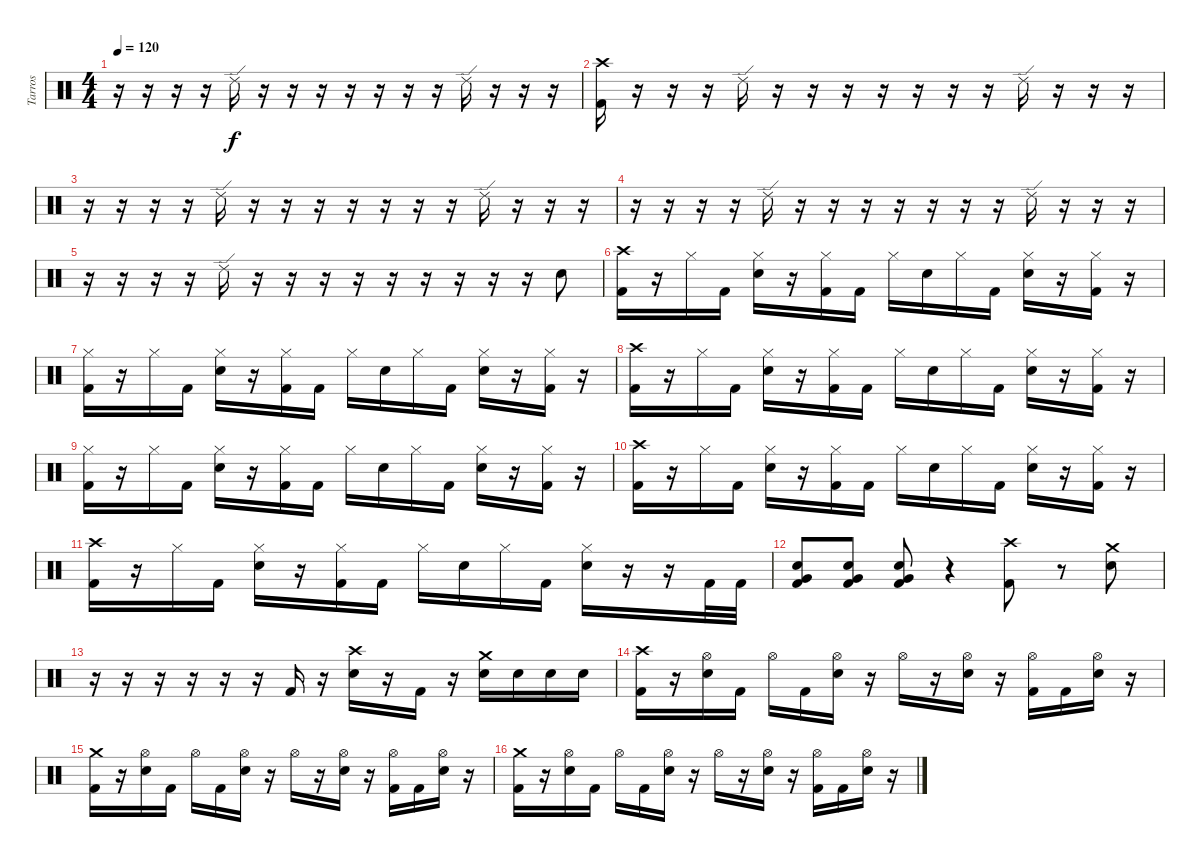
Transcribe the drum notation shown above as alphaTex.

\track ("Tarros" "Tarros") {instrument percussion}
\staff {score}
\articulation defaults
\ts (4 4)
\tempo 120
\clef neutral
\ks c
r.16{dy f} r.16 r.16 r.16 "Ride (edge) 2".16 r.16 r.16 r.16 r.16 r.16 r.16 r.16 "Ride (edge) 2".16 r.16 r.16 r.16 |
("Crash high (hit)" "Kick (hit) 2").16 r.16 r.16 r.16 "Ride (edge) 2".16 r.16 r.16 r.16 r.16 r.16 r.16 r.16 "Ride (edge) 2".16 r.16 r.16 r.16 |
r.16 r.16 r.16 r.16 "Ride (edge) 2".16 r.16 r.16 r.16 r.16 r.16 r.16 r.16 "Ride (edge) 2".16 r.16 r.16 r.16 |
r.16 r.16 r.16 r.16 "Ride (edge) 2".16 r.16 r.16 r.16 r.16 r.16 r.16 r.16 "Ride (edge) 2".16 r.16 r.16 r.16 |
r.16 r.16 r.16 r.16 "Ride (edge) 2".16 r.16 r.16 r.16 r.16 r.16 r.16 r.16 r.16 r.16 "Electric Snare (hit)".8 |
("Crash high (hit)" "Kick (hit) 2").16 r.16 "Hi-Hat (closed)".16 "Kick (hit) 2".16 ("Hi-Hat (closed)" "Electric Snare (hit)").16 r.16 ("Hi-Hat (closed)" "Kick (hit) 2").16 "Kick (hit) 2".16 "Hi-Hat (closed)".16 "Electric Snare (hit)".16 "Hi-Hat (closed)".16 "Kick (hit) 2".16 ("Hi-Hat (closed)" "Electric Snare (hit)").16 r.16 ("Hi-Hat (closed)" "Kick (hit) 2").16 r.16 |
("Hi-Hat (closed)" "Kick (hit) 2").16 r.16 "Hi-Hat (closed)".16 "Kick (hit) 2".16 ("Hi-Hat (closed)" "Electric Snare (hit)").16 r.16 ("Hi-Hat (closed)" "Kick (hit) 2").16 "Kick (hit) 2".16 "Hi-Hat (closed)".16 "Electric Snare (hit)".16 "Hi-Hat (closed)".16 "Kick (hit) 2".16 ("Hi-Hat (closed)" "Electric Snare (hit)").16 r.16 ("Hi-Hat (closed)" "Kick (hit) 2").16 r.16 |
("Crash high (hit)" "Kick (hit) 2").16 r.16 "Hi-Hat (closed)".16 "Kick (hit) 2".16 ("Hi-Hat (closed)" "Electric Snare (hit)").16 r.16 ("Hi-Hat (closed)" "Kick (hit) 2").16 "Kick (hit) 2".16 "Hi-Hat (closed)".16 "Electric Snare (hit)".16 "Hi-Hat (closed)".16 "Kick (hit) 2".16 ("Hi-Hat (closed)" "Electric Snare (hit)").16 r.16 ("Hi-Hat (closed)" "Kick (hit) 2").16 r.16 |
("Hi-Hat (closed)" "Kick (hit) 2").16 r.16 "Hi-Hat (closed)".16 "Kick (hit) 2".16 ("Hi-Hat (closed)" "Electric Snare (hit)").16 r.16 ("Hi-Hat (closed)" "Kick (hit) 2").16 "Kick (hit) 2".16 "Hi-Hat (closed)".16 "Electric Snare (hit)".16 "Hi-Hat (closed)".16 "Kick (hit) 2".16 ("Hi-Hat (closed)" "Electric Snare (hit)").16 r.16 ("Hi-Hat (closed)" "Kick (hit) 2").16 r.16 |
("Crash high (hit)" "Kick (hit) 2").16 r.16 "Hi-Hat (closed)".16 "Kick (hit) 2".16 ("Hi-Hat (closed)" "Electric Snare (hit)").16 r.16 ("Hi-Hat (closed)" "Kick (hit) 2").16 "Kick (hit) 2".16 "Hi-Hat (closed)".16 "Electric Snare (hit)".16 "Hi-Hat (closed)".16 "Kick (hit) 2".16 ("Hi-Hat (closed)" "Electric Snare (hit)").16 r.16 ("Hi-Hat (closed)" "Kick (hit) 2").16 r.16 |
("Crash high (hit)" "Kick (hit) 2").16 r.16 "Hi-Hat (closed)".16 "Kick (hit) 2".16 ("Hi-Hat (closed)" "Electric Snare (hit)").16 r.16 ("Hi-Hat (closed)" "Kick (hit) 2").16 "Kick (hit) 2".16 "Hi-Hat (closed)".16 "Electric Snare (hit)".16 "Hi-Hat (closed)".16 "Kick (hit) 2".16 ("Hi-Hat (closed)" "Electric Snare (hit)").16 r.16 r.16 "Kick (hit) 2".32 "Kick (hit) 2".32 |
("Very Low Tom (hit)" "Electric Snare (hit)" "Kick (hit) 2").8 ("Very Low Tom (hit)" "Electric Snare (hit)" "Kick (hit) 2").8 ("Very Low Tom (hit)" "Electric Snare (hit)" "Kick (hit) 2").8 r.4 ("Crash high (hit)" "Kick (hit) 2").8 r.8 ("Crash medium (hit)" "Electric Snare (hit)").8 |
r.16 r.16 r.16 r.16 r.16 r.16 "Kick (hit) 2".16 r.16 ("Crash high (hit)" "Electric Snare (hit)").16 r.16 "Kick (hit) 2".16 r.16 ("Crash medium (hit)" "Electric Snare (hit)").16 "Electric Snare (hit)".16 "Electric Snare (hit)".16 "Electric Snare (hit)".16 |
("Crash high (hit)" "Kick (hit) 2").16 r.16 ("Hi-Hat (open)" "Electric Snare (hit)").16 "Kick (hit) 2".16 "Hi-Hat (open)".16 "Kick (hit) 2".16 ("Hi-Hat (open)" "Electric Snare (hit)").16 r.16 "Hi-Hat (open)".16 r.16 ("Hi-Hat (open)" "Electric Snare (hit)").16 r.16 ("Hi-Hat (open)" "Kick (hit) 2").16 "Kick (hit) 2".16 ("Hi-Hat (open)" "Electric Snare (hit)").16 r.16 |
("Crash medium (hit)" "Kick (hit) 2").16 r.16 ("Hi-Hat (open)" "Electric Snare (hit)").16 "Kick (hit) 2".16 "Hi-Hat (open)".16 "Kick (hit) 2".16 ("Hi-Hat (open)" "Electric Snare (hit)").16 r.16 "Hi-Hat (open)".16 r.16 ("Hi-Hat (open)" "Electric Snare (hit)").16 r.16 ("Hi-Hat (open)" "Kick (hit) 2").16 "Kick (hit) 2".16 ("Hi-Hat (open)" "Electric Snare (hit)").16 r.16 |
("Crash medium (hit)" "Kick (hit) 2").16 r.16 ("Hi-Hat (open)" "Electric Snare (hit)").16 "Kick (hit) 2".16 "Hi-Hat (open)".16 "Kick (hit) 2".16 ("Hi-Hat (open)" "Electric Snare (hit)").16 r.16 "Hi-Hat (open)".16 r.16 ("Hi-Hat (open)" "Electric Snare (hit)").16 r.16 ("Hi-Hat (open)" "Kick (hit) 2").16 "Kick (hit) 2".16 ("Hi-Hat (open)" "Electric Snare (hit)").16 r.16
